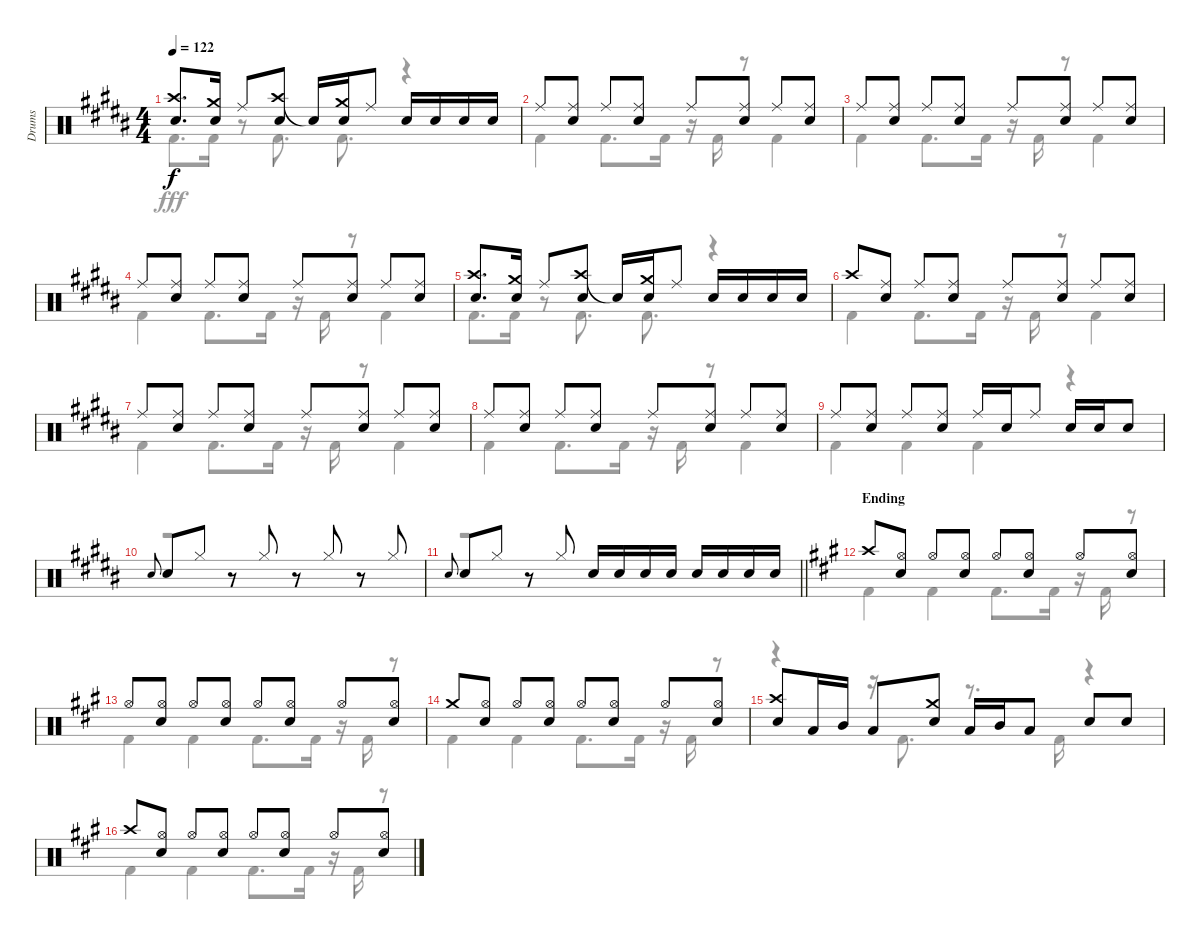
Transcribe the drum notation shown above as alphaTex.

\track ("Drums" "Drums") {instrument percussion}
\staff {score}
\articulation defaults
\voice
\ts (4 4)
\tempo 122
\clef neutral
\ks b
("Crash high (hit)" "Snare (hit) 2").8{d dy f} ("Crash medium (hit)" "Snare (hit) 2").16 "Ride (middle)".8 ("Crash high (hit)" "Snare (hit) 2").8 "Snare (hit)"{t}.16 ("Crash medium (hit)" "Snare (hit) 2").16 "Ride (middle)".8 "Snare (hit) 2".16 "Snare (hit) 2".16 "Snare (hit) 2".16 "Snare (hit) 2".16 |
"Ride (middle)".8 ("Ride (middle)" "Snare (hit) 2").8 "Ride (middle)".8 ("Ride (middle)" "Snare (hit) 2").8 "Ride (middle)".8 ("Ride (middle)" "Snare (hit) 2").8 "Ride (middle)".8 ("Ride (middle)" "Snare (hit) 2").8 |
"Ride (middle)".8 ("Ride (middle)" "Snare (hit) 2").8 "Ride (middle)".8 ("Ride (middle)" "Snare (hit) 2").8 "Ride (middle)".8 ("Ride (middle)" "Snare (hit) 2").8 "Ride (middle)".8 ("Ride (middle)" "Snare (hit) 2").8 |
"Ride (middle)".8 ("Ride (middle)" "Snare (hit) 2").8 "Ride (middle)".8 ("Ride (middle)" "Snare (hit) 2").8 "Ride (middle)".8 ("Ride (middle)" "Snare (hit) 2").8 "Ride (middle)".8 ("Ride (middle)" "Snare (hit) 2").8 |
("Crash high (hit)" "Snare (hit) 2").8{d} ("Crash medium (hit)" "Snare (hit) 2").16 "Ride (middle)".8 ("Crash high (hit)" "Snare (hit) 2").8 "Snare (hit)"{t}.16 ("Crash medium (hit)" "Snare (hit) 2").16 "Ride (middle)".8 "Snare (hit) 2".16 "Snare (hit) 2".16 "Snare (hit) 2".16 "Snare (hit) 2".16 |
"Crash high (hit)".8 ("Ride (middle)" "Snare (hit) 2").8 "Ride (middle)".8 ("Ride (middle)" "Snare (hit) 2").8 "Ride (middle)".8 ("Ride (middle)" "Snare (hit) 2").8 "Ride (middle)".8 ("Ride (middle)" "Snare (hit) 2").8 |
"Ride (middle)".8 ("Ride (middle)" "Snare (hit) 2").8 "Ride (middle)".8 ("Ride (middle)" "Snare (hit) 2").8 "Ride (middle)".8 ("Ride (middle)" "Snare (hit) 2").8 "Ride (middle)".8 ("Ride (middle)" "Snare (hit) 2").8 |
"Ride (middle)".8 ("Ride (middle)" "Snare (hit) 2").8 "Ride (middle)".8 ("Ride (middle)" "Snare (hit) 2").8 "Ride (middle)".8 ("Ride (middle)" "Snare (hit) 2").8 "Ride (middle)".8 ("Ride (middle)" "Snare (hit) 2").8 |
"Ride (middle)".8 ("Ride (middle)" "Snare (hit) 2").8 "Ride (middle)".8 ("Ride (middle)" "Snare (hit) 2").8 "Ride (middle)".16 "Snare (hit) 2".16 "Ride (middle)".8 "Snare (hit) 2".16 "Snare (hit) 2".16 "Snare (hit) 2".8 |
"Snare (hit) 2".8{gr onbeat} "Snare (hit) 2".8 "Hi-Hat (closed)".8 r.8 "Hi-Hat (closed)".8 r.8 "Hi-Hat (closed)".8 r.8 "Hi-Hat (closed)".8 |
\barLineRight lightlight "Snare (hit) 2".8{gr onbeat} "Snare (hit) 2".8 "Hi-Hat (closed)".8
r.8 "Hi-Hat (closed)".8 "Snare (hit) 2".16 "Snare (hit) 2".16 "Snare (hit) 2".16 "Snare (hit) 2".16 "Snare (hit) 2".16 "Snare (hit) 2".16 "Snare (hit) 2".16 "Snare (hit) 2".16 |
\section ("" "Ending")
\ks a "Crash high (hit)".8
("Hi-Hat (open)" "Snare (hit) 2").8 "Hi-Hat (open)".8 ("Hi-Hat (open)" "Snare (hit) 2").8 "Hi-Hat (open)".8 ("Hi-Hat (open)" "Snare (hit) 2").8 "Hi-Hat (open)".8 ("Hi-Hat (open)" "Snare (hit) 2").8 |
"Hi-Hat (open)".8 ("Hi-Hat (open)" "Snare (hit) 2").8 "Hi-Hat (open)".8 ("Hi-Hat (open)" "Snare (hit) 2").8 "Hi-Hat (open)".8 ("Hi-Hat (open)" "Snare (hit) 2").8 "Hi-Hat (open)".8 ("Hi-Hat (open)" "Snare (hit) 2").8 |
"Crash medium (hit)".8 ("Hi-Hat (open)" "Snare (hit) 2").8 "Hi-Hat (open)".8 ("Hi-Hat (open)" "Snare (hit) 2").8 "Hi-Hat (open)".8 ("Hi-Hat (open)" "Snare (hit) 2").8 "Hi-Hat (open)".8 ("Hi-Hat (open)" "Snare (hit) 2").8 |
("Crash high (hit)" "Snare (hit) 2").8 "Low Tom (hit)".16 "Mid Tom (hit)".16 "Low Tom (hit)".8 ("Crash medium (hit)" "Snare (hit) 2").8 "Low Tom (hit)".16 "Mid Tom (hit)".16 "Low Tom (hit)".8 "Snare (hit) 2".8 "Snare (hit) 2".8 |
"Crash high (hit)".8 ("Hi-Hat (open)" "Snare (hit) 2").8 "Hi-Hat (open)".8 ("Hi-Hat (open)" "Snare (hit) 2").8 "Hi-Hat (open)".8 ("Hi-Hat (open)" "Snare (hit) 2").8 "Hi-Hat (open)".8 ("Hi-Hat (open)" "Snare (hit) 2").8
\voice
\clef neutral
\ottava regular
\simile none
\ks b "Kick (hit) 2".8{d dy fff} "Kick (hit) 2".16
r.8 "Kick (hit) 2".8{d} "Kick (hit) 2".8{d} r.4 |
"Kick (hit) 2".4 "Kick (hit) 2".8{d} "Kick (hit) 2".16 r.16 "Kick (hit) 2".16 r.8 "Kick (hit) 2".4 |
"Kick (hit) 2".4 "Kick (hit) 2".8{d} "Kick (hit) 2".16 r.16 "Kick (hit) 2".16 r.8 "Kick (hit) 2".4 |
"Kick (hit) 2".4 "Kick (hit) 2".8{d} "Kick (hit) 2".16 r.16 "Kick (hit) 2".16 r.8 "Kick (hit) 2".4 |
"Kick (hit) 2".8{d} "Kick (hit) 2".16 r.8 "Kick (hit) 2".8{d} "Kick (hit) 2".8{d} r.4 |
"Kick (hit) 2".4 "Kick (hit) 2".8{d} "Kick (hit) 2".16 r.16 "Kick (hit) 2".16 r.8 "Kick (hit) 2".4 |
"Kick (hit) 2".4 "Kick (hit) 2".8{d} "Kick (hit) 2".16 r.16 "Kick (hit) 2".16 r.8 "Kick (hit) 2".4 |
"Kick (hit) 2".4 "Kick (hit) 2".8{d} "Kick (hit) 2".16 r.16 "Kick (hit) 2".16 r.8 "Kick (hit) 2".4 |
"Kick (hit) 2".4 "Kick (hit) 2".4 "Kick (hit) 2".4 r.4 |
r.1 |
\barLineRight lightlight
r.1 |
\ks a "Kick (hit) 2".4 "Kick (hit) 2".4 "Kick (hit) 2".8{d} "Kick (hit) 2".16
r.16 "Kick (hit) 2".16 r.8 |
"Kick (hit) 2".4 "Kick (hit) 2".4 "Kick (hit) 2".8{d} "Kick (hit) 2".16 r.16 "Kick (hit) 2".16 r.8 |
"Kick (hit) 2".4 "Kick (hit) 2".4 "Kick (hit) 2".8{d} "Kick (hit) 2".16 r.16 "Kick (hit) 2".16 r.8 |
r.4 r.16 "Kick (hit) 2".8{d} r.8{d} "Kick (hit) 2".16 r.4 |
"Kick (hit) 2".4 "Kick (hit) 2".4 "Kick (hit) 2".8{d} "Kick (hit) 2".16 r.16 "Kick (hit) 2".16 r.8
